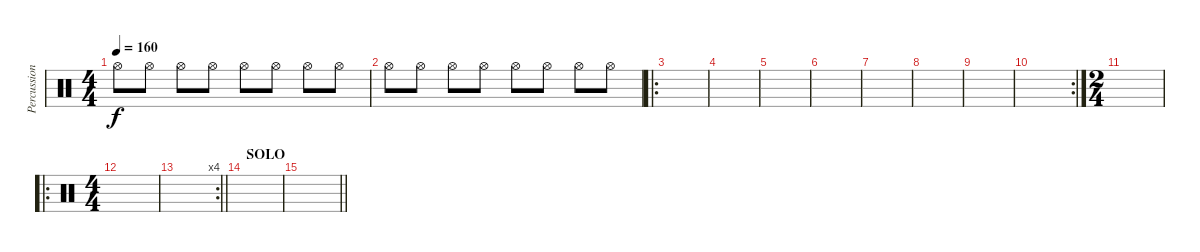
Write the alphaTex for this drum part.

\track ("Percussion" "Percussion") {instrument percussion}
\staff {score}
\articulation defaults
\ts (4 4)
\tempo 160
\clef neutral
\ks c "Hi-Hat (open)".8{dy f} "Hi-Hat (open)".8 "Hi-Hat (open)".8 "Hi-Hat (open)".8 "Hi-Hat (open)".8 "Hi-Hat (open)".8 "Hi-Hat (open)".8 "Hi-Hat (open)".8
|
"Hi-Hat (open)".8 "Hi-Hat (open)".8 "Hi-Hat (open)".8 "Hi-Hat (open)".8 "Hi-Hat (open)".8 "Hi-Hat (open)".8 "Hi-Hat (open)".8 "Hi-Hat (open)".8 |
\ro
|
|
|
|
|
|
|
\rc 2
|
\ts (2 4)
|
\ro
\ts (4 4)
|
\rc 4
\barLineRight lightlight
|
\section ("" "SOLO")
|
\barLineRight lightlight
